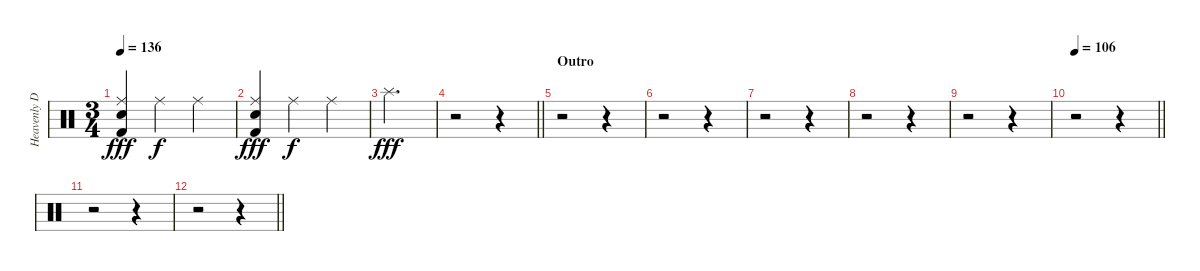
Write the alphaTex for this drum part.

\track ("Heavenly Drums" "Heavenly D") {instrument percussion}
\staff {score}
\articulation defaults
\ts (3 4)
\tempo 136
\clef neutral
\ks c
("Snare (hit) 2" "Ride (middle)" "Kick (hit) 2").4{dy fff} "Ride (middle)".4{dy f} "Ride (middle)".4 |
("Snare (hit) 2" "Ride (middle)" "Kick (hit) 2").4{dy fff} "Ride (middle)".4{dy f} "Ride (middle)".4 |
"Splash (hit)".2{d dy fff} |
\barLineRight lightlight
r.2 r.4 |
\section ("" "Outro")
r.2 r.4 |
r.2 r.4 |
r.2 r.4 |
r.2 r.4 |
r.2 r.4 |
\tempo 106
\barLineRight lightlight
r.2 r.4 |
r.2 r.4 |
\barLineRight lightlight
r.2 r.4
